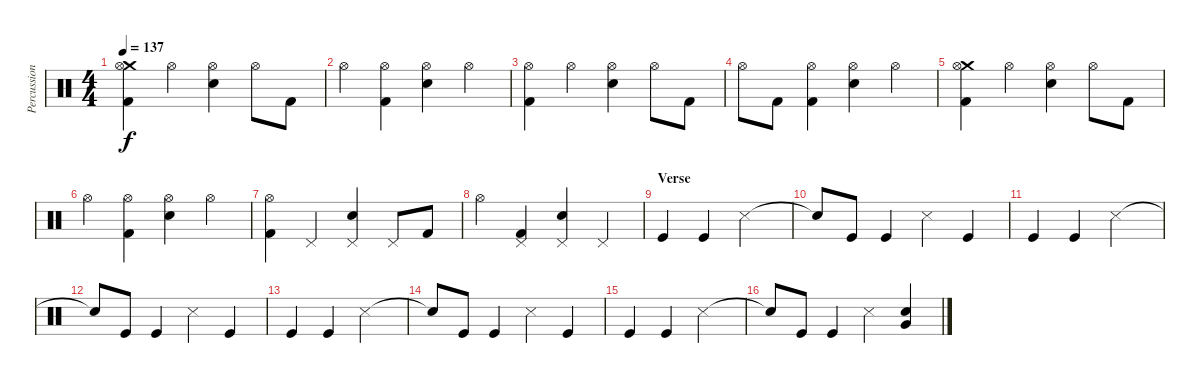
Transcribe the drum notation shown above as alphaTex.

\track ("Percussion" "Percussion") {instrument percussion}
\staff {score}
\articulation defaults
\ts (4 4)
\tempo 137
\clef neutral
\ks c
("Crash medium (hit)" "Hi-Hat (open)" "Kick (hit) 2").4{dy f} "Hi-Hat (open)".4 ("Hi-Hat (open)" "Electric Snare (hit)").4 "Hi-Hat (open)".8 "Kick (hit) 2".8 |
"Hi-Hat (open)".4 ("Hi-Hat (open)" "Kick (hit) 2").4 ("Hi-Hat (open)" "Electric Snare (hit)").4 "Hi-Hat (open)".4 |
("Hi-Hat (open)" "Kick (hit) 2").4 "Hi-Hat (open)".4 ("Hi-Hat (open)" "Electric Snare (hit)").4 "Hi-Hat (open)".8 "Kick (hit) 2".8 |
"Hi-Hat (open)".8 "Kick (hit) 2".8 ("Hi-Hat (open)" "Kick (hit) 2").4 ("Hi-Hat (open)" "Electric Snare (hit)").4 "Hi-Hat (open)".4 |
("Crash medium (hit)" "Hi-Hat (open)" "Kick (hit) 2").4 "Hi-Hat (open)".4 ("Hi-Hat (open)" "Electric Snare (hit)").4 "Hi-Hat (open)".8 "Kick (hit) 2".8 |
"Hi-Hat (open)".4 ("Hi-Hat (open)" "Kick (hit) 2").4 ("Hi-Hat (open)" "Electric Snare (hit)").4 "Hi-Hat (open)".4 |
("Hi-Hat (open)" "Kick (hit) 2").4 "Pedal Hi-Hat (hit)".4 ("Pedal Hi-Hat (hit)" "Electric Snare (hit)").4 "Pedal Hi-Hat (hit)".8 "Kick (hit) 2".8 |
"Hi-Hat (open)".4 ("Pedal Hi-Hat (hit)" "Kick (hit) 2").4 ("Pedal Hi-Hat (hit)" "Electric Snare (hit)").4 "Pedal Hi-Hat (hit)".4 |
\section ("" "Verse")
"Kick (hit)".4 "Kick (hit)".4 "Snare (side stick) 3".2 |
"Snare (hit) 2"{t}.8 "Kick (hit)".8 "Kick (hit)".4 "Snare (side stick) 3".4 "Kick (hit)".4 |
"Kick (hit)".4 "Kick (hit)".4 "Snare (side stick) 3".2 |
"Snare (hit) 2"{t}.8 "Kick (hit)".8 "Kick (hit)".4 "Snare (side stick) 3".4 "Kick (hit)".4 |
"Kick (hit)".4 "Kick (hit)".4 "Snare (side stick) 3".2 |
"Snare (hit) 2"{t}.8 "Kick (hit)".8 "Kick (hit)".4 "Snare (side stick) 3".4 "Kick (hit)".4 |
"Kick (hit)".4 "Kick (hit)".4 "Snare (side stick) 3".2 |
"Snare (hit) 2"{t}.8 "Kick (hit)".8 "Kick (hit)".4 "Snare (side stick) 3".4 ("Snare (hit) 2" "Very Low Tom (hit)").4
